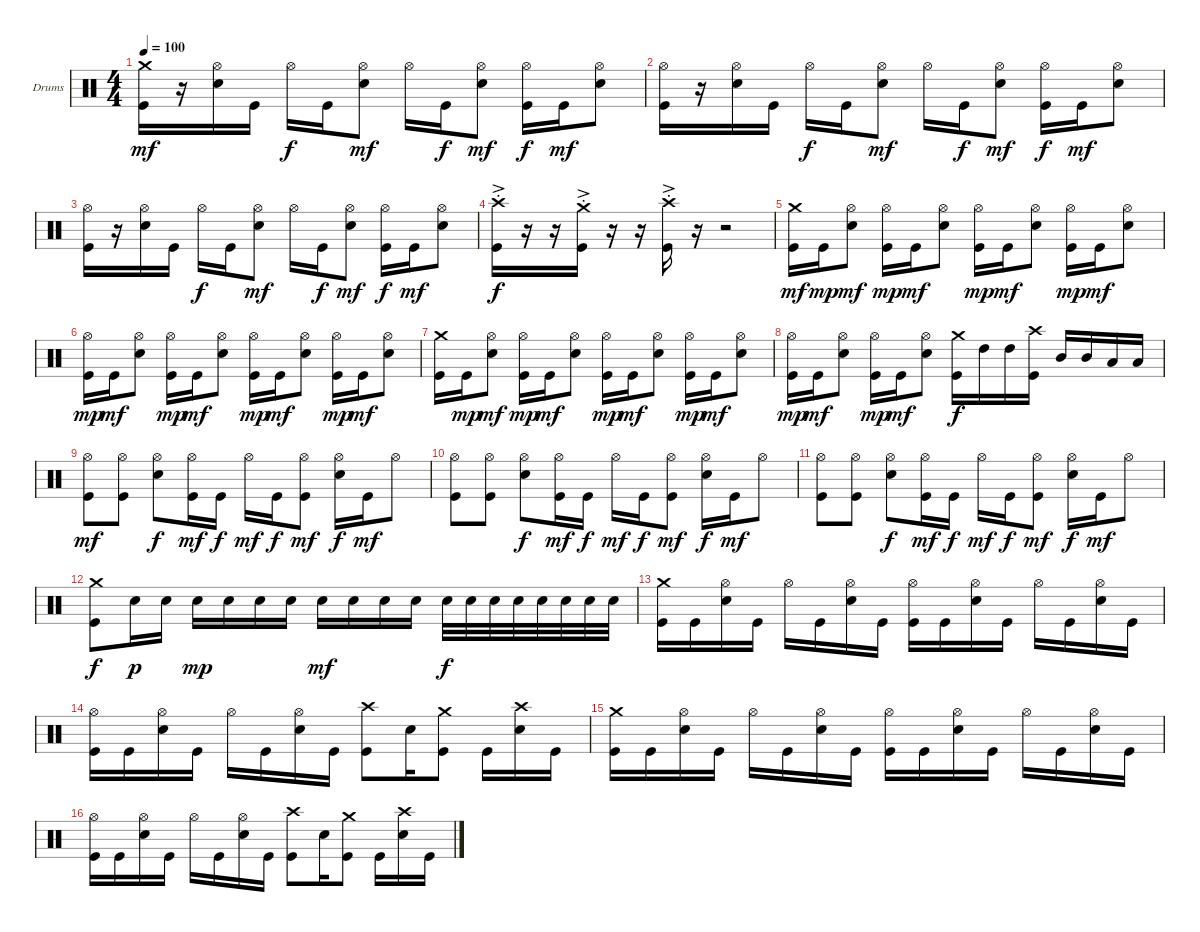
\bracketExtendMode groupsimilarinstruments
\firstSystemTrackNameOrientation horizontal
\otherSystemsTrackNameOrientation horizontal
\track ("Drumkit" "Drums") {instrument percussion}
\staff {score}
\articulation defaults
\ts (4 4)
\tempo 100
\clef neutral
\ks c
("Crash medium (hit)" "Kick (hit)").16{dy mf} r.16 ("Hi-Hat (open)" "Snare (hit) 2").16 "Kick (hit)".16 "Hi-Hat (open)".16{dy f} "Kick (hit)".16 ("Hi-Hat (open)" "Snare (hit) 2").8{dy mf} "Hi-Hat (open)".16 "Kick (hit)".16{dy f} ("Hi-Hat (open)" "Snare (hit) 2").8{dy mf} ("Hi-Hat (open)" "Kick (hit)").16{dy f} "Kick (hit)".16{dy mf} ("Hi-Hat (open)" "Snare (hit) 2").8 |
("Hi-Hat (open)" "Kick (hit)").16 r.16 ("Hi-Hat (open)" "Snare (hit) 2").16 "Kick (hit)".16 "Hi-Hat (open)".16{dy f} "Kick (hit)".16 ("Hi-Hat (open)" "Snare (hit) 2").8{dy mf} "Hi-Hat (open)".16 "Kick (hit)".16{dy f} ("Hi-Hat (open)" "Snare (hit) 2").8{dy mf} ("Hi-Hat (open)" "Kick (hit)").16{dy f} "Kick (hit)".16{dy mf} ("Hi-Hat (open)" "Snare (hit) 2").8 |
("Hi-Hat (open)" "Kick (hit)").16 r.16 ("Hi-Hat (open)" "Snare (hit) 2").16 "Kick (hit)".16 "Hi-Hat (open)".16{dy f} "Kick (hit)".16 ("Hi-Hat (open)" "Snare (hit) 2").8{dy mf} "Hi-Hat (open)".16 "Kick (hit)".16{dy f} ("Hi-Hat (open)" "Snare (hit) 2").8{dy mf} ("Hi-Hat (open)" "Kick (hit)").16{dy f} "Kick (hit)".16{dy mf} ("Hi-Hat (open)" "Snare (hit) 2").8 |
("Crash high (hit)"{ac st} "Kick (hit)").16{dy f} r.16 r.16 ("Crash medium (hit)"{ac st} "Kick (hit)").16 r.16 r.16 ("Crash high (hit)"{ac st} "Kick (hit)").16 r.16 r.2 |
("Crash medium (hit)" "Kick (hit)").16{dy mf} "Kick (hit)".16{dy mp} ("Hi-Hat (open)" "Snare (hit) 2").8{dy mf} ("Kick (hit)" "Hi-Hat (open)").16{dy mp} "Kick (hit)".16{dy mf} ("Hi-Hat (open)" "Snare (hit) 2").8 ("Kick (hit)" "Hi-Hat (open)").16{dy mp} "Kick (hit)".16{dy mf} ("Hi-Hat (open)" "Snare (hit) 2").8 ("Kick (hit)" "Hi-Hat (open)").16{dy mp} "Kick (hit)".16{dy mf} ("Hi-Hat (open)" "Snare (hit) 2").8 |
("Kick (hit)" "Hi-Hat (open)").16{dy mp} "Kick (hit)".16{dy mf} ("Hi-Hat (open)" "Snare (hit) 2").8 ("Kick (hit)" "Hi-Hat (open)").16{dy mp} "Kick (hit)".16{dy mf} ("Hi-Hat (open)" "Snare (hit) 2").8 ("Kick (hit)" "Hi-Hat (open)").16{dy mp} "Kick (hit)".16{dy mf} ("Hi-Hat (open)" "Snare (hit) 2").8 ("Kick (hit)" "Hi-Hat (open)").16{dy mp} "Kick (hit)".16{dy mf} ("Hi-Hat (open)" "Snare (hit) 2").8 |
("Crash medium (hit)" "Kick (hit)").16 "Kick (hit)".16{dy mp} ("Hi-Hat (open)" "Snare (hit) 2").8{dy mf} ("Kick (hit)" "Hi-Hat (open)").16{dy mp} "Kick (hit)".16{dy mf} ("Hi-Hat (open)" "Snare (hit) 2").8 ("Kick (hit)" "Hi-Hat (open)").16{dy mp} "Kick (hit)".16{dy mf} ("Hi-Hat (open)" "Snare (hit) 2").8 ("Kick (hit)" "Hi-Hat (open)").16{dy mp} "Kick (hit)".16{dy mf} ("Hi-Hat (open)" "Snare (hit) 2").8 |
("Kick (hit)" "Hi-Hat (open)").16{dy mp} "Kick (hit)".16{dy mf} ("Hi-Hat (open)" "Snare (hit) 2").8 ("Kick (hit)" "Hi-Hat (open)").16{dy mp} "Kick (hit)".16{dy mf} ("Hi-Hat (open)" "Snare (hit) 2").8 ("Crash medium (hit)" "Kick (hit)").16{dy f} "High Tom (hit)".16 "High Tom (hit)".16 ("Crash high (hit)" "Kick (hit)").16 "Mid Tom (hit)".16 "Mid Tom (hit)".16 "Low Tom (hit)".16 "Low Tom (hit)".16 |
("Hi-Hat (open)" "Kick (hit)").8{dy mf} ("Hi-Hat (open)" "Kick (hit)").8 ("Snare (hit) 2" "Hi-Hat (open)").8{dy f} ("Hi-Hat (open)" "Kick (hit)").16{dy mf} "Kick (hit)".16{dy f} "Hi-Hat (open)".16{dy mf} "Kick (hit)".16{dy f} ("Hi-Hat (open)" "Kick (hit)").8{dy mf} ("Snare (hit) 2" "Hi-Hat (open)").16{dy f} "Kick (hit)".16{dy mf} "Hi-Hat (open)".8 |
("Hi-Hat (open)" "Kick (hit)").8 ("Hi-Hat (open)" "Kick (hit)").8 ("Snare (hit) 2" "Hi-Hat (open)").8{dy f} ("Hi-Hat (open)" "Kick (hit)").16{dy mf} "Kick (hit)".16{dy f} "Hi-Hat (open)".16{dy mf} "Kick (hit)".16{dy f} ("Hi-Hat (open)" "Kick (hit)").8{dy mf} ("Snare (hit) 2" "Hi-Hat (open)").16{dy f} "Kick (hit)".16{dy mf} "Hi-Hat (open)".8 |
("Hi-Hat (open)" "Kick (hit)").8 ("Hi-Hat (open)" "Kick (hit)").8 ("Snare (hit) 2" "Hi-Hat (open)").8{dy f} ("Hi-Hat (open)" "Kick (hit)").16{dy mf} "Kick (hit)".16{dy f} "Hi-Hat (open)".16{dy mf} "Kick (hit)".16{dy f} ("Hi-Hat (open)" "Kick (hit)").8{dy mf} ("Snare (hit) 2" "Hi-Hat (open)").16{dy f} "Kick (hit)".16{dy mf} "Hi-Hat (open)".8 |
("Crash medium (hit)" "Kick (hit)").8{dy f} "Snare (hit) 2".16{dy p} "Snare (hit) 2".16 "Snare (hit) 2".16{dy mp} "Snare (hit) 2".16 "Snare (hit) 2".16 "Snare (hit) 2".16 "Snare (hit) 2".16{dy mf} "Snare (hit) 2".16 "Snare (hit) 2".16 "Snare (hit) 2".16 "Snare (hit) 2".32{dy f} "Snare (hit) 2".32 "Snare (hit) 2".32 "Snare (hit) 2".32 "Snare (hit) 2".32 "Snare (hit) 2".32 "Snare (hit) 2".32 "Snare (hit) 2".32 |
("Crash medium (hit)" "Kick (hit)").16 "Kick (hit)".16 ("Hi-Hat (open)" "Snare (hit) 2").16 "Kick (hit)".16 "Hi-Hat (open)".16 "Kick (hit)".16 ("Hi-Hat (open)" "Snare (hit) 2").16 "Kick (hit)".16 ("Hi-Hat (open)" "Kick (hit)").16 "Kick (hit)".16 ("Hi-Hat (open)" "Snare (hit) 2").16 "Kick (hit)".16 "Hi-Hat (open)".16 "Kick (hit)".16 ("Hi-Hat (open)" "Snare (hit) 2").16 "Kick (hit)".16 |
("Hi-Hat (open)" "Kick (hit)").16 "Kick (hit)".16 ("Hi-Hat (open)" "Snare (hit) 2").16 "Kick (hit)".16 "Hi-Hat (open)".16 "Kick (hit)".16 ("Hi-Hat (open)" "Snare (hit) 2").16 "Kick (hit)".16 ("Crash high (hit)" "Kick (hit)").8 "Snare (hit) 2".16 ("Crash medium (hit)" "Kick (hit)").8 "Kick (hit)".16 ("Crash high (hit)" "Snare (hit) 2").16 "Kick (hit)".16 |
("Crash medium (hit)" "Kick (hit)").16 "Kick (hit)".16 ("Hi-Hat (open)" "Snare (hit) 2").16 "Kick (hit)".16 "Hi-Hat (open)".16 "Kick (hit)".16 ("Hi-Hat (open)" "Snare (hit) 2").16 "Kick (hit)".16 ("Hi-Hat (open)" "Kick (hit)").16 "Kick (hit)".16 ("Hi-Hat (open)" "Snare (hit) 2").16 "Kick (hit)".16 "Hi-Hat (open)".16 "Kick (hit)".16 ("Hi-Hat (open)" "Snare (hit) 2").16 "Kick (hit)".16 |
("Hi-Hat (open)" "Kick (hit)").16 "Kick (hit)".16 ("Hi-Hat (open)" "Snare (hit) 2").16 "Kick (hit)".16 "Hi-Hat (open)".16 "Kick (hit)".16 ("Hi-Hat (open)" "Snare (hit) 2").16 "Kick (hit)".16 ("Crash high (hit)" "Kick (hit)").8 "Snare (hit) 2".16 ("Crash medium (hit)" "Kick (hit)").8 "Kick (hit)".16 ("Crash high (hit)" "Snare (hit) 2").16 "Kick (hit)".16
